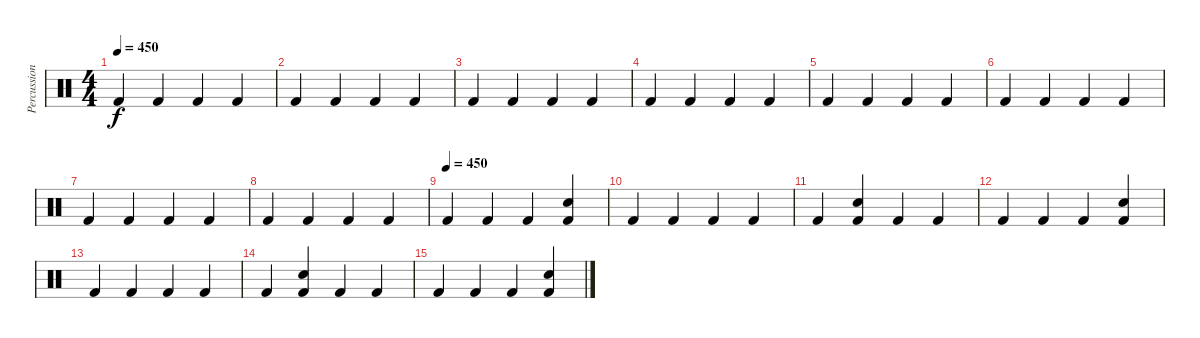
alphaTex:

\track ("Percussions2" "Percussion") {instrument percussion}
\staff {score}
\articulation defaults
\ts (4 4)
\tempo 450
\clef neutral
\ks c "Kick (hit) 2".4{dy f} "Kick (hit) 2".4 "Kick (hit) 2".4 "Kick (hit) 2".4
|
"Kick (hit) 2".4 "Kick (hit) 2".4 "Kick (hit) 2".4 "Kick (hit) 2".4 |
"Kick (hit) 2".4 "Kick (hit) 2".4 "Kick (hit) 2".4 "Kick (hit) 2".4 |
"Kick (hit) 2".4 "Kick (hit) 2".4 "Kick (hit) 2".4 "Kick (hit) 2".4 |
"Kick (hit) 2".4 "Kick (hit) 2".4 "Kick (hit) 2".4 "Kick (hit) 2".4 |
"Kick (hit) 2".4 "Kick (hit) 2".4 "Kick (hit) 2".4 "Kick (hit) 2".4 |
"Kick (hit) 2".4 "Kick (hit) 2".4 "Kick (hit) 2".4 "Kick (hit) 2".4 |
"Kick (hit) 2".4 "Kick (hit) 2".4 "Kick (hit) 2".4 "Kick (hit) 2".4 |
\tempo (450)
"Kick (hit) 2".4 "Kick (hit) 2".4 "Kick (hit) 2".4 ("Kick (hit) 2" "Snare (hit) 2").4 |
"Kick (hit) 2".4 "Kick (hit) 2".4 "Kick (hit) 2".4 "Kick (hit) 2".4 |
"Kick (hit) 2".4 ("Kick (hit) 2" "Snare (hit) 2").4 "Kick (hit) 2".4 "Kick (hit) 2".4 |
"Kick (hit) 2".4 "Kick (hit) 2".4 "Kick (hit) 2".4 ("Kick (hit) 2" "Snare (hit) 2").4 |
"Kick (hit) 2".4 "Kick (hit) 2".4 "Kick (hit) 2".4 "Kick (hit) 2".4 |
"Kick (hit) 2".4 ("Kick (hit) 2" "Snare (hit) 2").4 "Kick (hit) 2".4 "Kick (hit) 2".4 |
"Kick (hit) 2".4 "Kick (hit) 2".4 "Kick (hit) 2".4 ("Kick (hit) 2" "Snare (hit) 2").4
